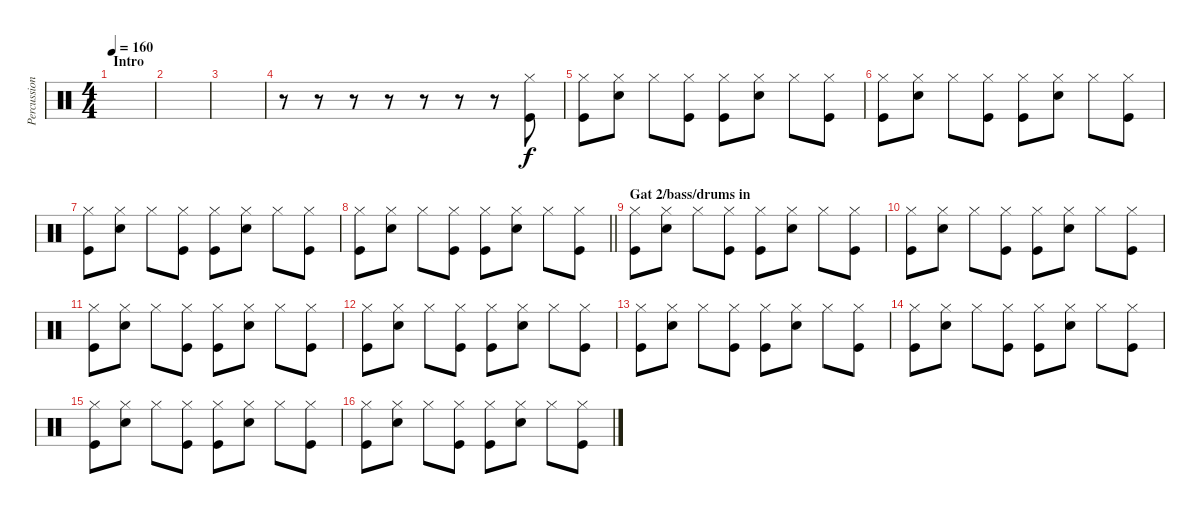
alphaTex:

\track ("Percussion" "Percussion") {instrument percussion}
\staff {score}
\articulation defaults
\ts (4 4)
\section ("" "Intro")
\tempo 160
\clef neutral
\ks c
|
|
|
r.8 r.8 r.8 r.8 r.8 r.8 r.8 ("Hi-Hat (closed)" "Kick (hit)").8 |
("Hi-Hat (closed)" "Kick (hit)").8 ("Hi-Hat (closed)" "Electric Snare (hit)").8 "Hi-Hat (closed)".8 ("Hi-Hat (closed)" "Kick (hit)").8 ("Hi-Hat (closed)" "Kick (hit)").8 ("Hi-Hat (closed)" "Electric Snare (hit)").8 "Hi-Hat (closed)".8 ("Hi-Hat (closed)" "Kick (hit)").8 |
("Hi-Hat (closed)" "Kick (hit)").8 ("Hi-Hat (closed)" "Electric Snare (hit)").8 "Hi-Hat (closed)".8 ("Hi-Hat (closed)" "Kick (hit)").8 ("Hi-Hat (closed)" "Kick (hit)").8 ("Hi-Hat (closed)" "Electric Snare (hit)").8 "Hi-Hat (closed)".8 ("Hi-Hat (closed)" "Kick (hit)").8 |
("Hi-Hat (closed)" "Kick (hit)").8 ("Hi-Hat (closed)" "Electric Snare (hit)").8 "Hi-Hat (closed)".8 ("Hi-Hat (closed)" "Kick (hit)").8 ("Hi-Hat (closed)" "Kick (hit)").8 ("Hi-Hat (closed)" "Electric Snare (hit)").8 "Hi-Hat (closed)".8 ("Hi-Hat (closed)" "Kick (hit)").8 |
\barLineRight lightlight
("Hi-Hat (closed)" "Kick (hit)").8 ("Hi-Hat (closed)" "Electric Snare (hit)").8 "Hi-Hat (closed)".8 ("Hi-Hat (closed)" "Kick (hit)").8 ("Hi-Hat (closed)" "Kick (hit)").8 ("Hi-Hat (closed)" "Electric Snare (hit)").8 "Hi-Hat (closed)".8 ("Hi-Hat (closed)" "Kick (hit)").8 |
\section ("" "Gat 2/bass/drums in")
("Hi-Hat (closed)" "Kick (hit)").8 ("Hi-Hat (closed)" "Electric Snare (hit)").8 "Hi-Hat (closed)".8 ("Hi-Hat (closed)" "Kick (hit)").8 ("Hi-Hat (closed)" "Kick (hit)").8 ("Hi-Hat (closed)" "Electric Snare (hit)").8 "Hi-Hat (closed)".8 ("Hi-Hat (closed)" "Kick (hit)").8 |
("Hi-Hat (closed)" "Kick (hit)").8 ("Hi-Hat (closed)" "Electric Snare (hit)").8 "Hi-Hat (closed)".8 ("Hi-Hat (closed)" "Kick (hit)").8 ("Hi-Hat (closed)" "Kick (hit)").8 ("Hi-Hat (closed)" "Electric Snare (hit)").8 "Hi-Hat (closed)".8 ("Hi-Hat (closed)" "Kick (hit)").8 |
("Hi-Hat (closed)" "Kick (hit)").8 ("Hi-Hat (closed)" "Electric Snare (hit)").8 "Hi-Hat (closed)".8 ("Hi-Hat (closed)" "Kick (hit)").8 ("Hi-Hat (closed)" "Kick (hit)").8 ("Hi-Hat (closed)" "Electric Snare (hit)").8 "Hi-Hat (closed)".8 ("Hi-Hat (closed)" "Kick (hit)").8 |
("Hi-Hat (closed)" "Kick (hit)").8 ("Hi-Hat (closed)" "Electric Snare (hit)").8 "Hi-Hat (closed)".8 ("Hi-Hat (closed)" "Kick (hit)").8 ("Hi-Hat (closed)" "Kick (hit)").8 ("Hi-Hat (closed)" "Electric Snare (hit)").8 "Hi-Hat (closed)".8 ("Hi-Hat (closed)" "Kick (hit)").8 |
("Hi-Hat (closed)" "Kick (hit)").8 ("Hi-Hat (closed)" "Electric Snare (hit)").8 "Hi-Hat (closed)".8 ("Hi-Hat (closed)" "Kick (hit)").8 ("Hi-Hat (closed)" "Kick (hit)").8 ("Hi-Hat (closed)" "Electric Snare (hit)").8 "Hi-Hat (closed)".8 ("Hi-Hat (closed)" "Kick (hit)").8 |
("Hi-Hat (closed)" "Kick (hit)").8 ("Hi-Hat (closed)" "Electric Snare (hit)").8 "Hi-Hat (closed)".8 ("Hi-Hat (closed)" "Kick (hit)").8 ("Hi-Hat (closed)" "Kick (hit)").8 ("Hi-Hat (closed)" "Electric Snare (hit)").8 "Hi-Hat (closed)".8 ("Hi-Hat (closed)" "Kick (hit)").8 |
("Hi-Hat (closed)" "Kick (hit)").8 ("Hi-Hat (closed)" "Electric Snare (hit)").8 "Hi-Hat (closed)".8 ("Hi-Hat (closed)" "Kick (hit)").8 ("Hi-Hat (closed)" "Kick (hit)").8 ("Hi-Hat (closed)" "Electric Snare (hit)").8 "Hi-Hat (closed)".8 ("Hi-Hat (closed)" "Kick (hit)").8 |
("Hi-Hat (closed)" "Kick (hit)").8 ("Hi-Hat (closed)" "Electric Snare (hit)").8 "Hi-Hat (closed)".8 ("Hi-Hat (closed)" "Kick (hit)").8 ("Hi-Hat (closed)" "Kick (hit)").8 ("Hi-Hat (closed)" "Electric Snare (hit)").8 "Hi-Hat (closed)".8 ("Hi-Hat (closed)" "Kick (hit)").8
